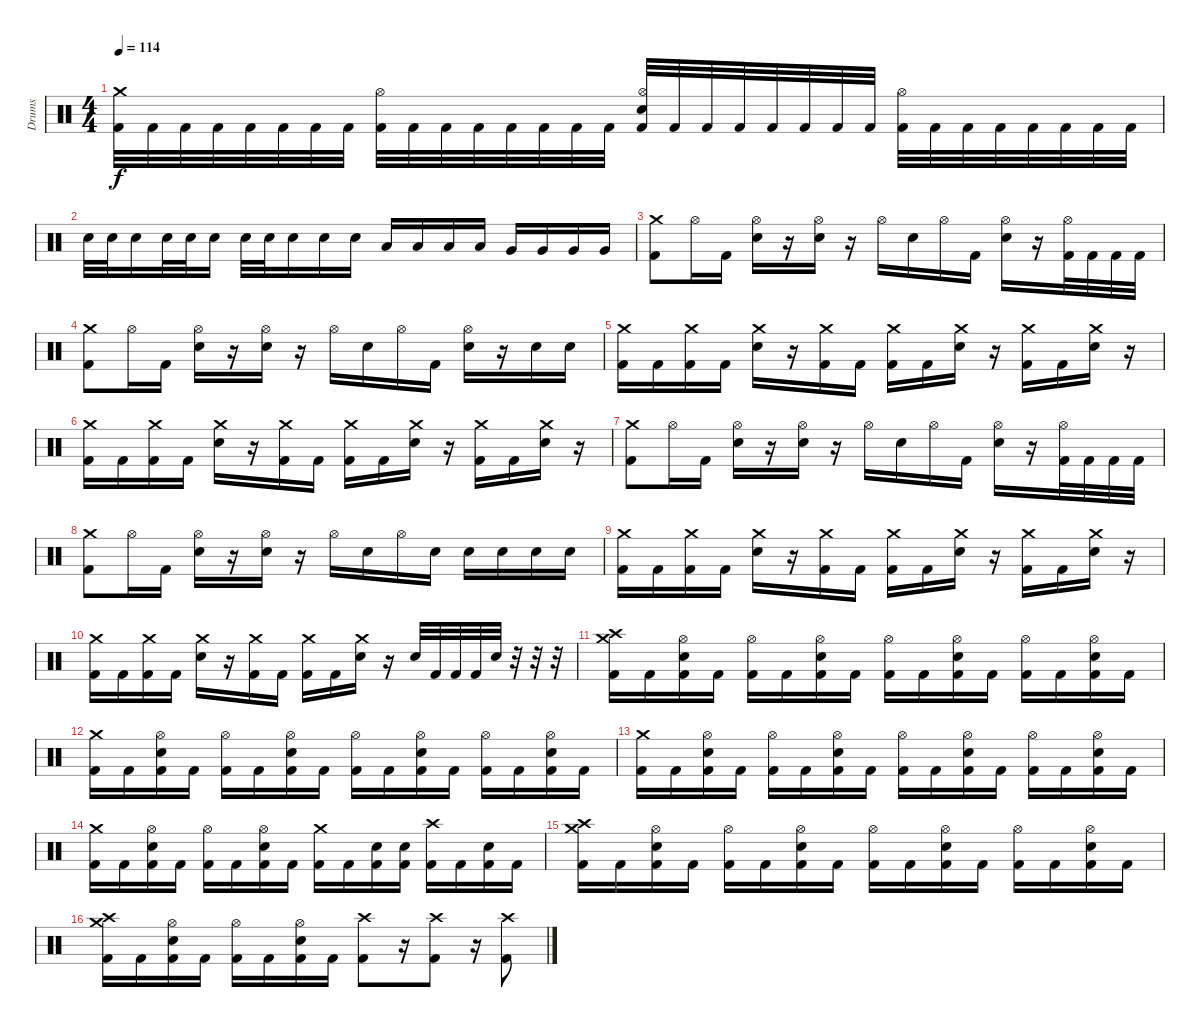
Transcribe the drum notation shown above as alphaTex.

\track ("Drums" "Drums") {instrument percussion}
\staff {score}
\articulation defaults
\ts (4 4)
\tempo 114
\clef neutral
\ks c
("Crash medium (hit)" "Kick (hit) 2").32{dy f} "Kick (hit) 2".32 "Kick (hit) 2".32 "Kick (hit) 2".32 "Kick (hit) 2".32 "Kick (hit) 2".32 "Kick (hit) 2".32 "Kick (hit) 2".32 ("Hi-Hat (open)" "Kick (hit) 2").32 "Kick (hit) 2".32 "Kick (hit) 2".32 "Kick (hit) 2".32 "Kick (hit) 2".32 "Kick (hit) 2".32 "Kick (hit) 2".32 "Kick (hit) 2".32 ("Hi-Hat (open)" "Snare (hit) 2" "Kick (hit) 2").32 "Kick (hit) 2".32 "Kick (hit) 2".32 "Kick (hit) 2".32 "Kick (hit) 2".32 "Kick (hit) 2".32 "Kick (hit) 2".32 "Kick (hit) 2".32 ("Hi-Hat (open)" "Kick (hit) 2").32 "Kick (hit) 2".32 "Kick (hit) 2".32 "Kick (hit) 2".32 "Kick (hit) 2".32 "Kick (hit) 2".32 "Kick (hit) 2".32 "Kick (hit) 2".32 |
"Snare (hit) 2".32 "Snare (hit) 2".32 "Snare (hit) 2".16 "Snare (hit) 2".32 "Snare (hit) 2".32 "Snare (hit) 2".16 "Snare (hit) 2".32 "Snare (hit) 2".32 "Snare (hit) 2".16 "Snare (hit) 2".16 "Snare (hit) 2".16 "Low Tom (hit)".16 "Low Tom (hit)".16 "Low Tom (hit)".16 "Low Tom (hit)".16 "Very Low Tom (hit)".16 "Very Low Tom (hit)".16 "Very Low Tom (hit)".16 "Very Low Tom (hit)".16 |
("Crash medium (hit)" "Kick (hit) 2").8 "Hi-Hat (open)".16 "Kick (hit) 2".16 ("Hi-Hat (open)" "Snare (hit) 2").16 r.16 ("Hi-Hat (open)" "Snare (hit) 2").16 r.16 "Hi-Hat (open)".16 "Snare (hit) 2".16 "Hi-Hat (open)".16 "Kick (hit) 2".16 ("Hi-Hat (open)" "Snare (hit) 2").16 r.16 ("Hi-Hat (open)" "Kick (hit) 2").32 "Kick (hit) 2".32 "Kick (hit) 2".32 "Kick (hit) 2".32 |
("Crash medium (hit)" "Kick (hit) 2").8 "Hi-Hat (open)".16 "Kick (hit) 2".16 ("Hi-Hat (open)" "Snare (hit) 2").16 r.16 ("Hi-Hat (open)" "Snare (hit) 2").16 r.16 "Hi-Hat (open)".16 "Snare (hit) 2".16 "Hi-Hat (open)".16 "Kick (hit) 2".16 ("Hi-Hat (open)" "Snare (hit) 2").16 r.16 "Snare (hit) 2".16 "Snare (hit) 2".16 |
("Crash medium (hit)" "Kick (hit) 2").16 "Kick (hit) 2".16 ("Crash medium (hit)" "Kick (hit) 2").16 "Kick (hit) 2".16 ("Crash medium (hit)" "Snare (hit) 2").16 r.16 ("Crash medium (hit)" "Kick (hit) 2").16 "Kick (hit) 2".16 ("Crash medium (hit)" "Kick (hit) 2").16 "Kick (hit) 2".16 ("Crash medium (hit)" "Snare (hit) 2").16 r.16 ("Crash medium (hit)" "Kick (hit) 2").16 "Kick (hit) 2".16 ("Crash medium (hit)" "Snare (hit) 2").16 r.16 |
("Crash medium (hit)" "Kick (hit) 2").16 "Kick (hit) 2".16 ("Crash medium (hit)" "Kick (hit) 2").16 "Kick (hit) 2".16 ("Crash medium (hit)" "Snare (hit) 2").16 r.16 ("Crash medium (hit)" "Kick (hit) 2").16 "Kick (hit) 2".16 ("Crash medium (hit)" "Kick (hit) 2").16 "Kick (hit) 2".16 ("Crash medium (hit)" "Snare (hit) 2").16 r.16 ("Crash medium (hit)" "Kick (hit) 2").16 "Kick (hit) 2".16 ("Crash medium (hit)" "Snare (hit) 2").16 r.16 |
("Crash medium (hit)" "Kick (hit) 2").8 "Hi-Hat (open)".16 "Kick (hit) 2".16 ("Hi-Hat (open)" "Snare (hit) 2").16 r.16 ("Hi-Hat (open)" "Snare (hit) 2").16 r.16 "Hi-Hat (open)".16 "Snare (hit) 2".16 "Hi-Hat (open)".16 "Kick (hit) 2".16 ("Hi-Hat (open)" "Snare (hit) 2").16 r.16 ("Hi-Hat (open)" "Kick (hit) 2").32 "Kick (hit) 2".32 "Kick (hit) 2".32 "Kick (hit) 2".32 |
("Crash medium (hit)" "Kick (hit) 2").8 "Hi-Hat (open)".16 "Kick (hit) 2".16 ("Hi-Hat (open)" "Snare (hit) 2").16 r.16 ("Hi-Hat (open)" "Snare (hit) 2").16 r.16 "Hi-Hat (open)".16 "Snare (hit) 2".16 "Hi-Hat (open)".16 "Snare (hit) 2".16 "Snare (hit) 2".16 "Snare (hit) 2".16 "Snare (hit) 2".16 "Snare (hit) 2".16 |
("Crash medium (hit)" "Kick (hit) 2").16 "Kick (hit) 2".16 ("Crash medium (hit)" "Kick (hit) 2").16 "Kick (hit) 2".16 ("Crash medium (hit)" "Snare (hit) 2").16 r.16 ("Crash medium (hit)" "Kick (hit) 2").16 "Kick (hit) 2".16 ("Crash medium (hit)" "Kick (hit) 2").16 "Kick (hit) 2".16 ("Crash medium (hit)" "Snare (hit) 2").16 r.16 ("Crash medium (hit)" "Kick (hit) 2").16 "Kick (hit) 2".16 ("Crash medium (hit)" "Snare (hit) 2").16 r.16 |
("Crash medium (hit)" "Kick (hit) 2").16 "Kick (hit) 2".16 ("Crash medium (hit)" "Kick (hit) 2").16 "Kick (hit) 2".16 ("Crash medium (hit)" "Snare (hit) 2").16 r.16 ("Crash medium (hit)" "Kick (hit) 2").16 "Kick (hit) 2".16 ("Crash medium (hit)" "Kick (hit) 2").16 "Kick (hit) 2".16 ("Crash medium (hit)" "Snare (hit) 2").16 r.16 "Snare (hit) 2".32 "Kick (hit) 2".32 "Kick (hit) 2".32 "Kick (hit) 2".32 "Snare (hit) 2".32 r.32 r.32 r.32 |
("Crash medium (hit)" "Crash high (hit)" "Kick (hit) 2").16 "Kick (hit) 2".16 ("Hi-Hat (open)" "Snare (hit) 2" "Kick (hit) 2").16 "Kick (hit) 2".16 ("Hi-Hat (open)" "Kick (hit) 2").16 "Kick (hit) 2".16 ("Hi-Hat (open)" "Snare (hit) 2" "Kick (hit) 2").16 "Kick (hit) 2".16 ("Hi-Hat (open)" "Kick (hit) 2").16 "Kick (hit) 2".16 ("Hi-Hat (open)" "Snare (hit) 2" "Kick (hit) 2").16 "Kick (hit) 2".16 ("Hi-Hat (open)" "Kick (hit) 2").16 "Kick (hit) 2".16 ("Hi-Hat (open)" "Snare (hit) 2" "Kick (hit) 2").16 "Kick (hit) 2".16 |
("Crash medium (hit)" "Kick (hit) 2").16 "Kick (hit) 2".16 ("Hi-Hat (open)" "Snare (hit) 2" "Kick (hit) 2").16 "Kick (hit) 2".16 ("Hi-Hat (open)" "Kick (hit) 2").16 "Kick (hit) 2".16 ("Hi-Hat (open)" "Snare (hit) 2" "Kick (hit) 2").16 "Kick (hit) 2".16 ("Hi-Hat (open)" "Kick (hit) 2").16 "Kick (hit) 2".16 ("Hi-Hat (open)" "Snare (hit) 2" "Kick (hit) 2").16 "Kick (hit) 2".16 ("Hi-Hat (open)" "Kick (hit) 2").16 "Kick (hit) 2".16 ("Hi-Hat (open)" "Snare (hit) 2" "Kick (hit) 2").16 "Kick (hit) 2".16 |
("Crash medium (hit)" "Kick (hit) 2").16 "Kick (hit) 2".16 ("Hi-Hat (open)" "Snare (hit) 2" "Kick (hit) 2").16 "Kick (hit) 2".16 ("Hi-Hat (open)" "Kick (hit) 2").16 "Kick (hit) 2".16 ("Hi-Hat (open)" "Snare (hit) 2" "Kick (hit) 2").16 "Kick (hit) 2".16 ("Hi-Hat (open)" "Kick (hit) 2").16 "Kick (hit) 2".16 ("Hi-Hat (open)" "Snare (hit) 2" "Kick (hit) 2").16 "Kick (hit) 2".16 ("Hi-Hat (open)" "Kick (hit) 2").16 "Kick (hit) 2".16 ("Hi-Hat (open)" "Snare (hit) 2" "Kick (hit) 2").16 "Kick (hit) 2".16 |
("Crash medium (hit)" "Kick (hit) 2").16 "Kick (hit) 2".16 ("Hi-Hat (open)" "Snare (hit) 2" "Kick (hit) 2").16 "Kick (hit) 2".16 ("Hi-Hat (open)" "Kick (hit) 2").16 "Kick (hit) 2".16 ("Hi-Hat (open)" "Snare (hit) 2" "Kick (hit) 2").16 "Kick (hit) 2".16 ("Crash medium (hit)" "Kick (hit) 2").16 "Kick (hit) 2".16 ("Snare (hit) 2" "Kick (hit) 2").16 ("Snare (hit) 2" "Kick (hit) 2").16 ("Crash high (hit)" "Kick (hit) 2").16 "Kick (hit) 2".16 ("Snare (hit) 2" "Kick (hit) 2").16 "Kick (hit) 2".16 |
("Crash medium (hit)" "Crash high (hit)" "Kick (hit) 2").16 "Kick (hit) 2".16 ("Hi-Hat (open)" "Snare (hit) 2" "Kick (hit) 2").16 "Kick (hit) 2".16 ("Hi-Hat (open)" "Kick (hit) 2").16 "Kick (hit) 2".16 ("Hi-Hat (open)" "Snare (hit) 2" "Kick (hit) 2").16 "Kick (hit) 2".16 ("Hi-Hat (open)" "Kick (hit) 2").16 "Kick (hit) 2".16 ("Hi-Hat (open)" "Snare (hit) 2" "Kick (hit) 2").16 "Kick (hit) 2".16 ("Hi-Hat (open)" "Kick (hit) 2").16 "Kick (hit) 2".16 ("Hi-Hat (open)" "Snare (hit) 2" "Kick (hit) 2").16 "Kick (hit) 2".16 |
("Crash medium (hit)" "Crash high (hit)" "Kick (hit) 2").16 "Kick (hit) 2".16 ("Hi-Hat (open)" "Snare (hit) 2" "Kick (hit) 2").16 "Kick (hit) 2".16 ("Hi-Hat (open)" "Kick (hit) 2").16 "Kick (hit) 2".16 ("Hi-Hat (open)" "Snare (hit) 2" "Kick (hit) 2").16 "Kick (hit) 2".16 ("Crash high (hit)" "Kick (hit) 2").8 r.16{volume 0} ("Crash high (hit)" "Kick (hit) 2").8{volume 14} r.16{volume 0} ("Crash high (hit)" "Kick (hit) 2").8{volume 13}
